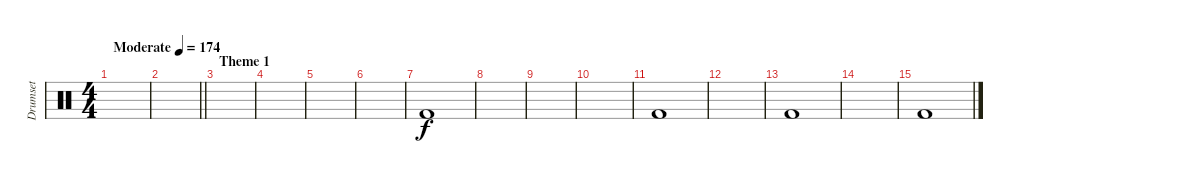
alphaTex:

\track ("Drumset" "Drumset") {instrument percussion}
\staff {score}
\articulation defaults
\ts (4 4)
\tempo (174 "Moderate")
\clef neutral
\ks c
|
\barLineRight lightlight
|
\section ("" "Theme 1")
|
|
|
|
"Kick (hit) 2".1 |
|
|
|
"Kick (hit) 2".1 |
|
"Kick (hit) 2".1 |
|
"Kick (hit) 2".1
